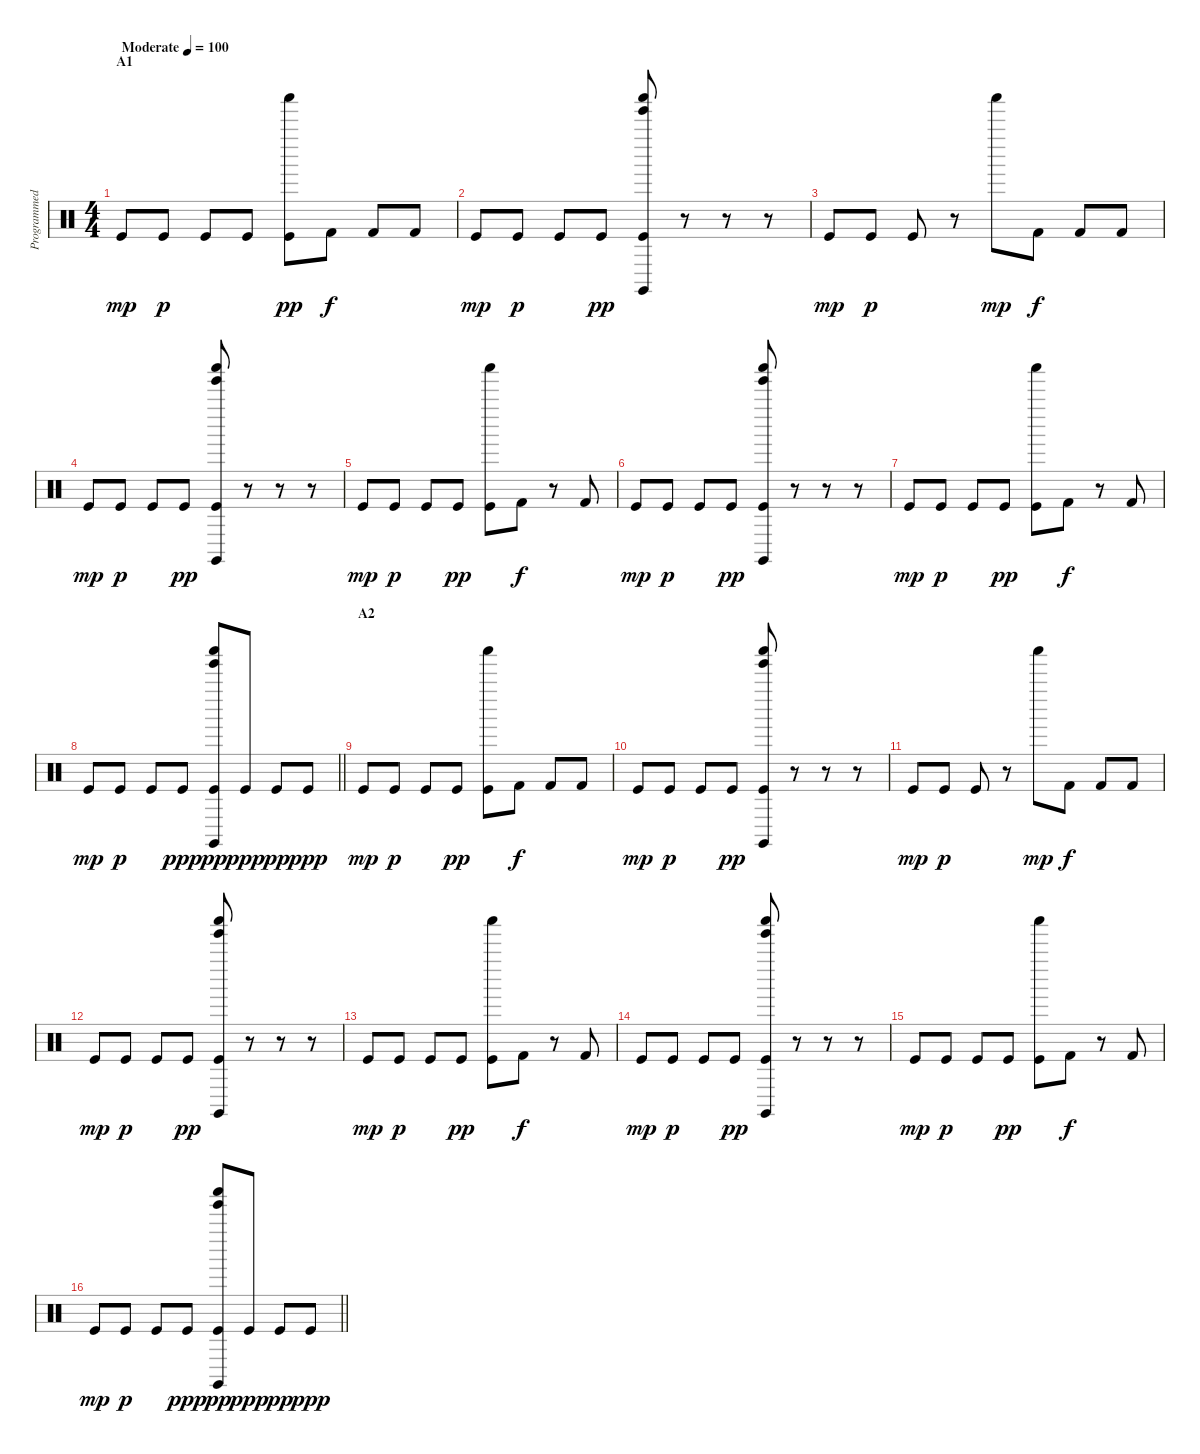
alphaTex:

\track ("Programmed Drums" "Programmed") {instrument percussion}
\staff {score}
\articulation defaults
\ts (4 4)
\section ("" "A1")
\tempo (100 "Moderate")
\clef neutral
\ks c "Kick (hit)".8{dy mp volume 14 balance 13} "Kick (hit)".8{dy p balance 3} "Kick (hit)".8{balance 13} "Kick (hit)".8{balance 3}
("Shaker (hit)" "Kick (hit)").8{dy pp balance 5} "Kick (hit) 2".8{dy f balance 6} "Kick (hit) 2".8 "Kick (hit) 2".8 |
"Kick (hit)".8{dy mp balance 13} "Kick (hit)".8{dy p balance 3} "Kick (hit)".8{balance 13} "Kick (hit)".8{dy pp balance 3} ("Shaker (hit)" "Tinkle Bell (hit)" "Claves (hit)" "Kick (hit)").8{balance 5} r.8 r.8 r.8 |
"Kick (hit)".8{dy mp balance 13} "Kick (hit)".8{dy p balance 3} "Kick (hit)".8{balance 13} r.8{balance 3} "Shaker (hit)".8{dy mp balance 5} "Kick (hit) 2".8{dy f balance 6} "Kick (hit) 2".8 "Kick (hit) 2".8 |
"Kick (hit)".8{dy mp balance 13} "Kick (hit)".8{dy p balance 3} "Kick (hit)".8{balance 13} "Kick (hit)".8{dy pp balance 3} ("Shaker (hit)" "Tinkle Bell (hit)" "Claves (hit)" "Kick (hit)").8{balance 5} r.8 r.8 r.8 |
"Kick (hit)".8{dy mp balance 13} "Kick (hit)".8{dy p balance 3} "Kick (hit)".8{balance 13} "Kick (hit)".8{dy pp balance 3} ("Shaker (hit)" "Kick (hit)").8{balance 5} "Kick (hit) 2".8{dy f balance 6} r.8 "Kick (hit) 2".8 |
"Kick (hit)".8{dy mp balance 13} "Kick (hit)".8{dy p balance 3} "Kick (hit)".8{balance 13} "Kick (hit)".8{dy pp balance 3} ("Shaker (hit)" "Tinkle Bell (hit)" "Claves (hit)" "Kick (hit)").8{balance 5} r.8 r.8 r.8 |
"Kick (hit)".8{dy mp balance 13} "Kick (hit)".8{dy p balance 3} "Kick (hit)".8{balance 13} "Kick (hit)".8{dy pp balance 3} ("Shaker (hit)" "Kick (hit)").8{balance 5} "Kick (hit) 2".8{dy f balance 6} r.8 "Kick (hit) 2".8 |
\barLineRight lightlight "Kick (hit)".8{dy mp balance 13} "Kick (hit)".8{dy p balance 3} "Kick (hit)".8{balance 13} "Kick (hit)".8{dy ppp balance 3}
("Shaker (hit)" "Tinkle Bell (hit)" "Claves (hit)" "Kick (hit)").8{dy pp balance 5} "Kick (hit)".8{dy ppp} "Kick (hit)".8{dy pp} "Kick (hit)".8{dy ppp} |
\section ("" "A2")
"Kick (hit)".8{dy mp balance 13} "Kick (hit)".8{dy p balance 3} "Kick (hit)".8{balance 13} "Kick (hit)".8{dy pp balance 3} ("Shaker (hit)" "Kick (hit)").8{balance 5} "Kick (hit) 2".8{dy f balance 6} "Kick (hit) 2".8 "Kick (hit) 2".8 |
"Kick (hit)".8{dy mp balance 13} "Kick (hit)".8{dy p balance 3} "Kick (hit)".8{balance 13} "Kick (hit)".8{dy pp balance 3} ("Shaker (hit)" "Tinkle Bell (hit)" "Claves (hit)" "Kick (hit)").8{balance 5} r.8 r.8 r.8 |
"Kick (hit)".8{dy mp balance 13} "Kick (hit)".8{dy p balance 3} "Kick (hit)".8{balance 13} r.8{balance 3} "Shaker (hit)".8{dy mp balance 5} "Kick (hit) 2".8{dy f balance 6} "Kick (hit) 2".8 "Kick (hit) 2".8 |
"Kick (hit)".8{dy mp balance 13} "Kick (hit)".8{dy p balance 3} "Kick (hit)".8{balance 13} "Kick (hit)".8{dy pp balance 3} ("Shaker (hit)" "Tinkle Bell (hit)" "Claves (hit)" "Kick (hit)").8{balance 5} r.8 r.8 r.8 |
"Kick (hit)".8{dy mp balance 13} "Kick (hit)".8{dy p balance 3} "Kick (hit)".8{balance 13} "Kick (hit)".8{dy pp balance 3} ("Shaker (hit)" "Kick (hit)").8{balance 5} "Kick (hit) 2".8{dy f balance 6} r.8 "Kick (hit) 2".8 |
"Kick (hit)".8{dy mp balance 13} "Kick (hit)".8{dy p balance 3} "Kick (hit)".8{balance 13} "Kick (hit)".8{dy pp balance 3} ("Shaker (hit)" "Tinkle Bell (hit)" "Claves (hit)" "Kick (hit)").8{balance 5} r.8 r.8 r.8 |
"Kick (hit)".8{dy mp balance 13} "Kick (hit)".8{dy p balance 3} "Kick (hit)".8{balance 13} "Kick (hit)".8{dy pp balance 3} ("Shaker (hit)" "Kick (hit)").8{balance 5} "Kick (hit) 2".8{dy f balance 6} r.8 "Kick (hit) 2".8 |
\barLineRight lightlight "Kick (hit)".8{dy mp balance 13} "Kick (hit)".8{dy p balance 3} "Kick (hit)".8{balance 13} "Kick (hit)".8{dy ppp balance 3}
("Shaker (hit)" "Tinkle Bell (hit)" "Claves (hit)" "Kick (hit)").8{dy pp balance 5} "Kick (hit)".8{dy ppp} "Kick (hit)".8{dy pp} "Kick (hit)".8{dy ppp}
